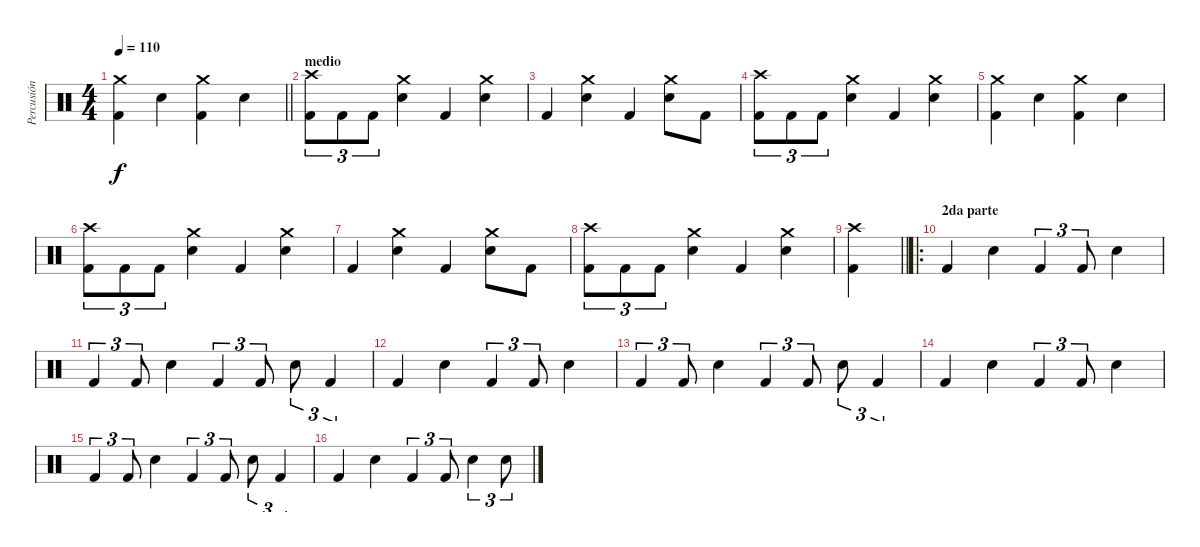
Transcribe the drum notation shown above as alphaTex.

\track ("Percusión" "Percusión") {instrument percussion}
\staff {score}
\articulation defaults
\ts (4 4)
\tempo 110
\clef neutral
\barLineRight lightlight
\ks c
("Crash medium (hit)" "Kick (hit) 2").4{dy f} "Electric Snare (hit)".4 ("Crash medium (hit)" "Kick (hit) 2").4 "Electric Snare (hit)".4 |
\section ("" "medio")
("Crash high (hit)" "Kick (hit) 2").8{tu (3 2)} "Kick (hit) 2".8{tu (3 2)} "Kick (hit) 2".8{tu (3 2)} ("Crash medium (hit)" "Electric Snare (hit)").4 "Kick (hit) 2".4 ("Crash medium (hit)" "Electric Snare (hit)").4 |
"Kick (hit) 2".4 ("Crash medium (hit)" "Electric Snare (hit)").4 "Kick (hit) 2".4 ("Crash medium (hit)" "Electric Snare (hit)").8 "Kick (hit) 2".8 |
("Crash high (hit)" "Kick (hit) 2").8{tu (3 2)} "Kick (hit) 2".8{tu (3 2)} "Kick (hit) 2".8{tu (3 2)} ("Crash medium (hit)" "Electric Snare (hit)").4 "Kick (hit) 2".4 ("Crash medium (hit)" "Electric Snare (hit)").4 |
("Crash medium (hit)" "Kick (hit) 2").4 "Electric Snare (hit)".4 ("Crash medium (hit)" "Kick (hit) 2").4 "Electric Snare (hit)".4 |
("Crash high (hit)" "Kick (hit) 2").8{tu (3 2)} "Kick (hit) 2".8{tu (3 2)} "Kick (hit) 2".8{tu (3 2)} ("Crash medium (hit)" "Electric Snare (hit)").4 "Kick (hit) 2".4 ("Crash medium (hit)" "Electric Snare (hit)").4 |
"Kick (hit) 2".4 ("Crash medium (hit)" "Electric Snare (hit)").4 "Kick (hit) 2".4 ("Crash medium (hit)" "Electric Snare (hit)").8 "Kick (hit) 2".8 |
("Crash high (hit)" "Kick (hit) 2").8{tu (3 2)} "Kick (hit) 2".8{tu (3 2)} "Kick (hit) 2".8{tu (3 2)} ("Crash medium (hit)" "Electric Snare (hit)").4 "Kick (hit) 2".4 ("Crash medium (hit)" "Electric Snare (hit)").4 |
\barLineRight lightlight
("Crash high (hit)" "Kick (hit) 2").4 |
\ro
\section ("" "2da parte")
"Kick (hit) 2".4 "Electric Snare (hit)".4 "Kick (hit) 2".4{tu (3 2)} "Kick (hit) 2".8{tu (3 2)} "Electric Snare (hit)".4 |
"Kick (hit) 2".4{tu (3 2)} "Kick (hit) 2".8{tu (3 2)} "Electric Snare (hit)".4 "Kick (hit) 2".4{tu (3 2)} "Kick (hit) 2".8{tu (3 2)} "Electric Snare (hit)".8{tu (3 2)} "Kick (hit) 2".4{tu (3 2)} |
"Kick (hit) 2".4 "Electric Snare (hit)".4 "Kick (hit) 2".4{tu (3 2)} "Kick (hit) 2".8{tu (3 2)} "Electric Snare (hit)".4 |
"Kick (hit) 2".4{tu (3 2)} "Kick (hit) 2".8{tu (3 2)} "Electric Snare (hit)".4 "Kick (hit) 2".4{tu (3 2)} "Kick (hit) 2".8{tu (3 2)} "Electric Snare (hit)".8{tu (3 2)} "Kick (hit) 2".4{tu (3 2)} |
"Kick (hit) 2".4 "Electric Snare (hit)".4 "Kick (hit) 2".4{tu (3 2)} "Kick (hit) 2".8{tu (3 2)} "Electric Snare (hit)".4 |
"Kick (hit) 2".4{tu (3 2)} "Kick (hit) 2".8{tu (3 2)} "Electric Snare (hit)".4 "Kick (hit) 2".4{tu (3 2)} "Kick (hit) 2".8{tu (3 2)} "Electric Snare (hit)".8{tu (3 2)} "Kick (hit) 2".4{tu (3 2)} |
"Kick (hit) 2".4 "Electric Snare (hit)".4 "Kick (hit) 2".4{tu (3 2)} "Kick (hit) 2".8{tu (3 2)} "Electric Snare (hit)".4{tu (3 2)} "Electric Snare (hit)".8{tu (3 2)}
